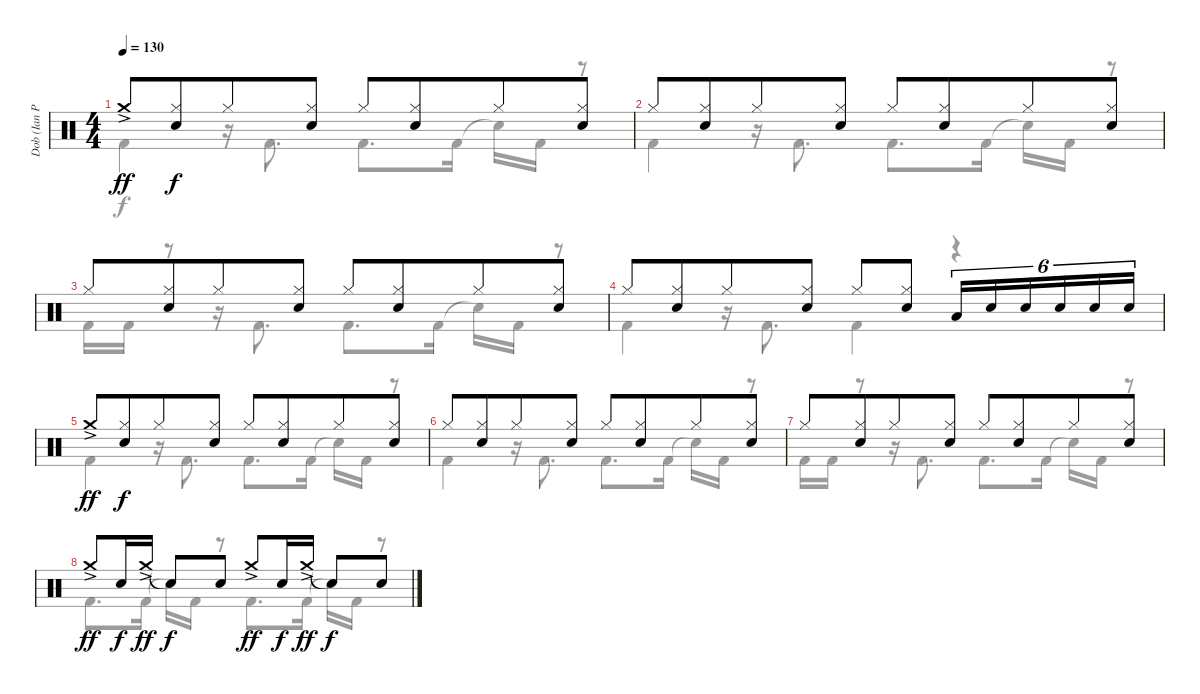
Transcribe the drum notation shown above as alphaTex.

\track ("Dob (Ian Paice)" "Dob (Ian P") {instrument percussion}
\staff {score}
\articulation defaults
\voice
\ts (4 4)
\tempo 130
\clef neutral
\ks c "Crash medium (hit)"{ac}.8{dy ff}
("Hi-Hat (closed)" "Electric Snare (hit)").8{dy f beam merge} "Hi-Hat (closed)".8 ("Hi-Hat (closed)" "Electric Snare (hit)").8 "Hi-Hat (closed)".8 ("Hi-Hat (closed)" "Electric Snare (hit)").8{beam merge} "Hi-Hat (closed)".8 ("Hi-Hat (closed)" "Electric Snare (hit)").8 |
"Hi-Hat (closed)".8 ("Hi-Hat (closed)" "Electric Snare (hit)").8{beam merge} "Hi-Hat (closed)".8 ("Hi-Hat (closed)" "Electric Snare (hit)").8 "Hi-Hat (closed)".8 ("Hi-Hat (closed)" "Electric Snare (hit)").8{beam merge} "Hi-Hat (closed)".8 ("Hi-Hat (closed)" "Electric Snare (hit)").8 |
"Hi-Hat (closed)".8 ("Hi-Hat (closed)" "Electric Snare (hit)").8{beam merge} "Hi-Hat (closed)".8 ("Hi-Hat (closed)" "Electric Snare (hit)").8 "Hi-Hat (closed)".8 ("Hi-Hat (closed)" "Electric Snare (hit)").8{beam merge} "Hi-Hat (closed)".8 ("Hi-Hat (closed)" "Electric Snare (hit)").8 |
"Hi-Hat (closed)".8 ("Hi-Hat (closed)" "Electric Snare (hit)").8{beam merge} "Hi-Hat (closed)".8 ("Hi-Hat (closed)" "Electric Snare (hit)").8 "Hi-Hat (closed)".8 ("Hi-Hat (closed)" "Electric Snare (hit)").8 "Low Tom (hit)".16{tu (6 4)} "Electric Snare (hit)".16{tu (6 4)} "Electric Snare (hit)".16{tu (6 4)} "Electric Snare (hit)".16{tu (6 4)} "Electric Snare (hit)".16{tu (6 4)} "Electric Snare (hit)".16{tu (6 4)} |
"Crash medium (hit)"{ac}.8{dy ff} ("Hi-Hat (closed)" "Electric Snare (hit)").8{dy f beam merge} "Hi-Hat (closed)".8 ("Hi-Hat (closed)" "Electric Snare (hit)").8 "Hi-Hat (closed)".8 ("Hi-Hat (closed)" "Electric Snare (hit)").8{beam merge} "Hi-Hat (closed)".8 ("Hi-Hat (closed)" "Electric Snare (hit)").8 |
"Hi-Hat (closed)".8 ("Hi-Hat (closed)" "Electric Snare (hit)").8{beam merge} "Hi-Hat (closed)".8 ("Hi-Hat (closed)" "Electric Snare (hit)").8 "Hi-Hat (closed)".8 ("Hi-Hat (closed)" "Electric Snare (hit)").8{beam merge} "Hi-Hat (closed)".8 ("Hi-Hat (closed)" "Electric Snare (hit)").8 |
"Hi-Hat (closed)".8 ("Hi-Hat (closed)" "Electric Snare (hit)").8{beam merge} "Hi-Hat (closed)".8 ("Hi-Hat (closed)" "Electric Snare (hit)").8 "Hi-Hat (closed)".8 ("Hi-Hat (closed)" "Electric Snare (hit)").8{beam merge} "Hi-Hat (closed)".8 ("Hi-Hat (closed)" "Electric Snare (hit)").8 |
"Crash medium (hit)"{ac}.8{dy ff} "Electric Snare (hit)".16{dy f} "Crash medium (hit)"{ac}.16{dy ff} "Snare (hit)"{t}.8{dy f} "Electric Snare (hit)".8 "Crash medium (hit)"{ac}.8{dy ff} "Electric Snare (hit)".16{dy f} "Crash medium (hit)"{ac}.16{dy ff} "Snare (hit)"{t}.8{dy f} "Electric Snare (hit)".8 |
\voice
\clef neutral
\ottava regular
\simile none
\ks c "Kick (hit) 2".4{dy f}
r.16 "Kick (hit) 2".8{d} "Kick (hit) 2".8{d} "Kick (hit) 2".16 "Snare (hit)"{t}.16 "Kick (hit) 2".16 r.8 |
"Kick (hit) 2".4 r.16 "Kick (hit) 2".8{d} "Kick (hit) 2".8{d} "Kick (hit) 2".16 "Snare (hit)"{t}.16 "Kick (hit) 2".16 r.8 |
"Kick (hit) 2".16 "Kick (hit) 2".16 r.8 r.16 "Kick (hit) 2".8{d} "Kick (hit) 2".8{d} "Kick (hit) 2".16 "Snare (hit)"{t}.16 "Kick (hit) 2".16 r.8 |
"Kick (hit) 2".4 r.16 "Kick (hit) 2".8{d} "Kick (hit) 2".4 r.4 |
"Kick (hit) 2".4 r.16 "Kick (hit) 2".8{d} "Kick (hit) 2".8{d} "Kick (hit) 2".16 "Snare (hit)"{t}.16 "Kick (hit) 2".16 r.8 |
"Kick (hit) 2".4 r.16 "Kick (hit) 2".8{d} "Kick (hit) 2".8{d} "Kick (hit) 2".16 "Snare (hit)"{t}.16 "Kick (hit) 2".16 r.8 |
"Kick (hit) 2".16 "Kick (hit) 2".16 r.8 r.16 "Kick (hit) 2".8{d} "Kick (hit) 2".8{d} "Kick (hit) 2".16 "Snare (hit)"{t}.16 "Kick (hit) 2".16 r.8 |
"Kick (hit) 2".8{d} "Kick (hit) 2".16 "Snare (hit)"{t}.16 "Kick (hit) 2".16 r.8 "Kick (hit) 2".8{d} "Kick (hit) 2".16 "Snare (hit)"{t}.16 "Kick (hit) 2".16 r.8 |
